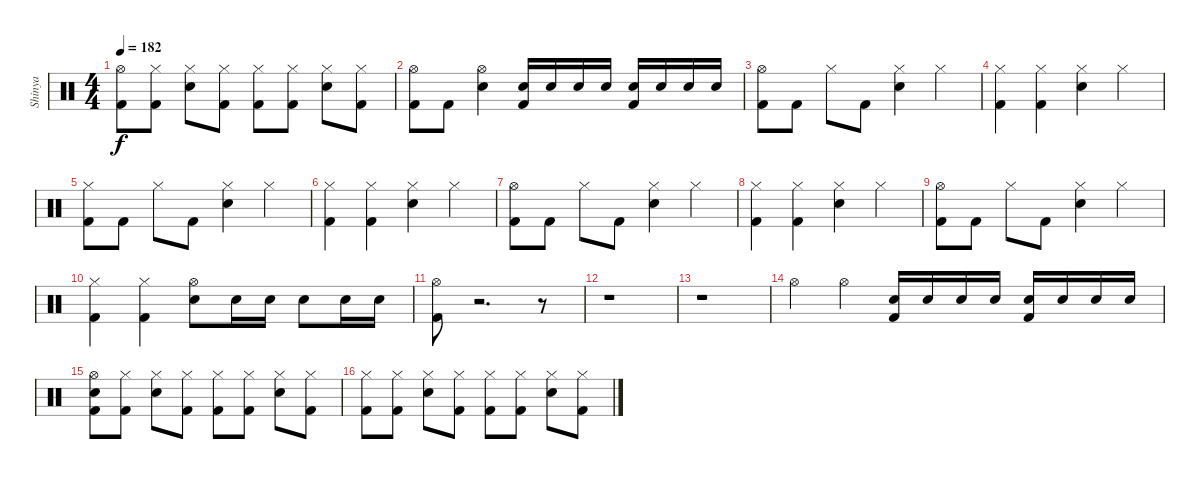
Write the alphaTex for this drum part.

\track ("Shinya" "Shinya") {instrument percussion}
\staff {score}
\articulation defaults
\ts (4 4)
\tempo 182
\clef neutral
\ks c
("Kick (hit) 2" "Hi-Hat (open)").8{dy f} ("Kick (hit) 2" "Hi-Hat (closed)").8 ("Snare (hit) 2" "Hi-Hat (closed)").8 ("Kick (hit) 2" "Hi-Hat (closed)").8 ("Kick (hit) 2" "Hi-Hat (closed)").8 ("Kick (hit) 2" "Hi-Hat (closed)").8 ("Snare (hit) 2" "Hi-Hat (closed)").8 ("Kick (hit) 2" "Hi-Hat (closed)").8 |
("Hi-Hat (open)" "Kick (hit) 2").8 "Kick (hit) 2".8 ("Hi-Hat (open)" "Snare (hit) 2").4 ("Snare (hit) 2" "Kick (hit) 2").16 "Snare (hit) 2".16 "Snare (hit) 2".16 "Snare (hit) 2".16 ("Kick (hit) 2" "Snare (hit) 2").16 "Snare (hit) 2".16 "Snare (hit) 2".16 "Snare (hit) 2".16 |
("Kick (hit) 2" "Hi-Hat (open)").8 "Kick (hit) 2".8 "Hi-Hat (closed)".8 "Kick (hit) 2".8 ("Snare (hit) 2" "Hi-Hat (closed)").4 "Hi-Hat (closed)".4 |
("Kick (hit) 2" "Hi-Hat (closed)").4 ("Kick (hit) 2" "Hi-Hat (closed)").4 ("Snare (hit) 2" "Hi-Hat (closed)").4 "Hi-Hat (closed)".4 |
("Kick (hit) 2" "Hi-Hat (closed)").8 "Kick (hit) 2".8 "Hi-Hat (closed)".8 "Kick (hit) 2".8 ("Snare (hit) 2" "Hi-Hat (closed)").4 "Hi-Hat (closed)".4 |
("Kick (hit) 2" "Hi-Hat (closed)").4 ("Kick (hit) 2" "Hi-Hat (closed)").4 ("Snare (hit) 2" "Hi-Hat (closed)").4 "Hi-Hat (closed)".4 |
("Hi-Hat (open)" "Kick (hit) 2").8 "Kick (hit) 2".8 "Hi-Hat (closed)".8 "Kick (hit) 2".8 ("Snare (hit) 2" "Hi-Hat (closed)").4 "Hi-Hat (closed)".4 |
("Kick (hit) 2" "Hi-Hat (closed)").4 ("Kick (hit) 2" "Hi-Hat (closed)").4 ("Snare (hit) 2" "Hi-Hat (closed)").4 "Hi-Hat (closed)".4 |
("Hi-Hat (open)" "Kick (hit) 2").8 "Kick (hit) 2".8 "Hi-Hat (closed)".8 "Kick (hit) 2".8 ("Snare (hit) 2" "Hi-Hat (closed)").4 "Hi-Hat (closed)".4 |
("Kick (hit) 2" "Hi-Hat (closed)").4 ("Kick (hit) 2" "Hi-Hat (closed)").4 ("Hi-Hat (open)" "Snare (hit) 2").8 "Snare (hit) 2".16 "Snare (hit) 2".16 "Snare (hit) 2".8 "Snare (hit) 2".16 "Snare (hit) 2".16 |
("Kick (hit) 2" "Hi-Hat (open)").8 r.2{d} r.8 |
r.1 |
r.1 |
"Hi-Hat (open)".4 "Hi-Hat (open)".4 ("Snare (hit) 2" "Kick (hit) 2").16 "Snare (hit) 2".16 "Snare (hit) 2".16 "Snare (hit) 2".16 ("Snare (hit) 2" "Kick (hit) 2").16 "Snare (hit) 2".16 "Snare (hit) 2".16 "Snare (hit) 2".16 |
("Snare (hit)" "Kick (hit) 2" "Hi-Hat (open)").8 ("Kick (hit) 2" "Hi-Hat (closed)").8 ("Snare (hit) 2" "Hi-Hat (closed)").8 ("Kick (hit) 2" "Hi-Hat (closed)").8 ("Kick (hit) 2" "Hi-Hat (closed)").8 ("Kick (hit) 2" "Hi-Hat (closed)").8 ("Snare (hit) 2" "Hi-Hat (closed)").8 ("Kick (hit) 2" "Hi-Hat (closed)").8 |
("Kick (hit) 2" "Hi-Hat (closed)").8 ("Kick (hit) 2" "Hi-Hat (closed)").8 ("Snare (hit) 2" "Hi-Hat (closed)").8 ("Kick (hit) 2" "Hi-Hat (closed)").8 ("Kick (hit) 2" "Hi-Hat (closed)").8 ("Kick (hit) 2" "Hi-Hat (closed)").8 ("Snare (hit) 2" "Hi-Hat (closed)").8 ("Kick (hit) 2" "Hi-Hat (closed)").8
